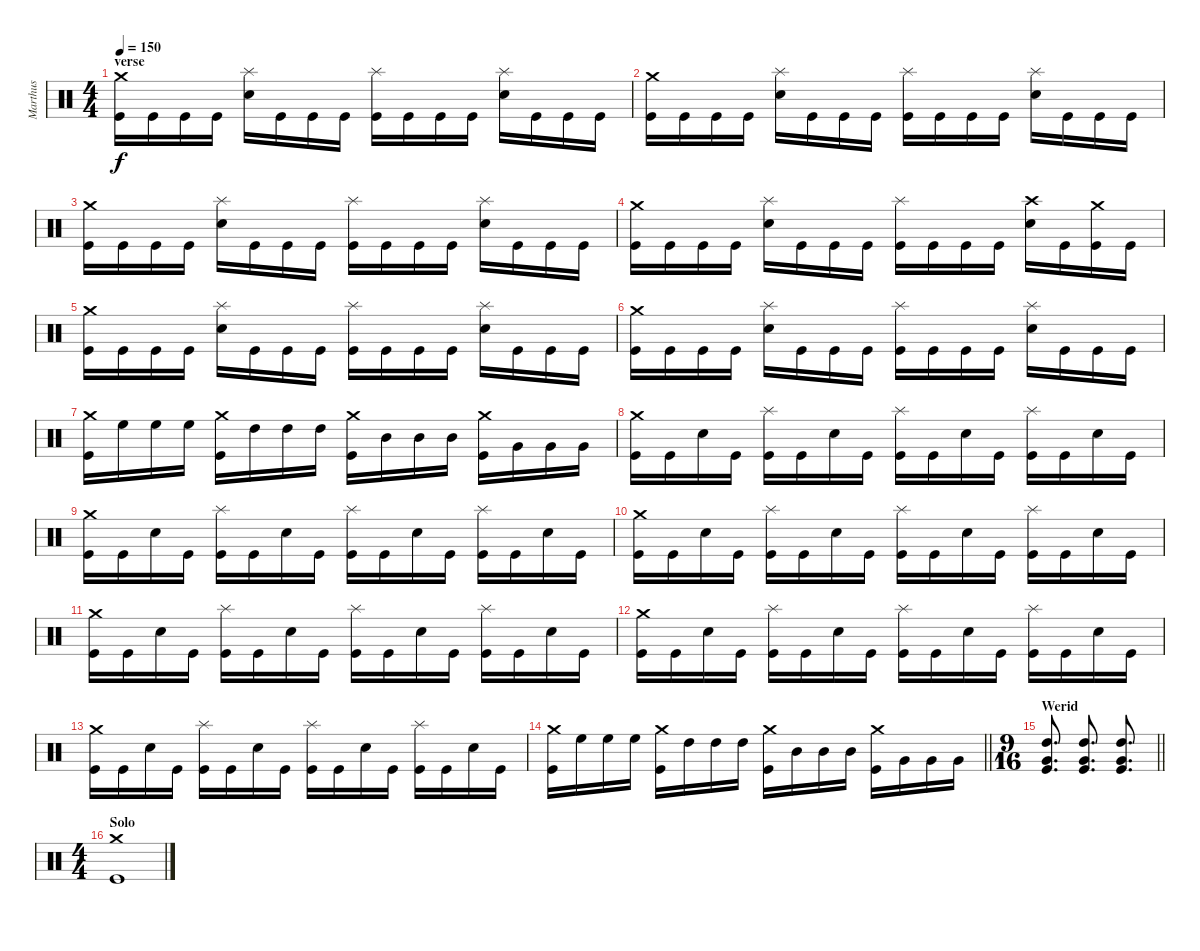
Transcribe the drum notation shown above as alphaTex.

\track ("Marthus" "Marthus") {instrument percussion}
\staff {score}
\articulation defaults
\ts (4 4)
\section ("" "verse")
\tempo 150
\clef neutral
\ks c
("Crash medium (hit)" "Kick (hit)").16{dy f} "Kick (hit)".16 "Kick (hit)".16 "Kick (hit)".16 ("Splash (hit)" "Snare (hit) 2").16 "Kick (hit)".16 "Kick (hit)".16 "Kick (hit)".16 ("Splash (hit)" "Kick (hit)").16 "Kick (hit)".16 "Kick (hit)".16 "Kick (hit)".16 ("Splash (hit)" "Snare (hit) 2").16 "Kick (hit)".16 "Kick (hit)".16 "Kick (hit)".16 |
("Crash medium (hit)" "Kick (hit)").16 "Kick (hit)".16 "Kick (hit)".16 "Kick (hit)".16 ("Splash (hit)" "Snare (hit) 2").16 "Kick (hit)".16 "Kick (hit)".16 "Kick (hit)".16 ("Splash (hit)" "Kick (hit)").16 "Kick (hit)".16 "Kick (hit)".16 "Kick (hit)".16 ("Splash (hit)" "Snare (hit) 2").16 "Kick (hit)".16 "Kick (hit)".16 "Kick (hit)".16 |
("Crash medium (hit)" "Kick (hit)").16 "Kick (hit)".16 "Kick (hit)".16 "Kick (hit)".16 ("Splash (hit)" "Snare (hit) 2").16 "Kick (hit)".16 "Kick (hit)".16 "Kick (hit)".16 ("Splash (hit)" "Kick (hit)").16 "Kick (hit)".16 "Kick (hit)".16 "Kick (hit)".16 ("Splash (hit)" "Snare (hit) 2").16 "Kick (hit)".16 "Kick (hit)".16 "Kick (hit)".16 |
("Crash medium (hit)" "Kick (hit)").16 "Kick (hit)".16 "Kick (hit)".16 "Kick (hit)".16 ("Splash (hit)" "Snare (hit) 2").16 "Kick (hit)".16 "Kick (hit)".16 "Kick (hit)".16 ("Splash (hit)" "Kick (hit)").16 "Kick (hit)".16 "Kick (hit)".16 "Kick (hit)".16 ("Crash high (hit)" "Snare (hit) 2").16 "Kick (hit)".16 ("Crash medium (hit)" "Kick (hit)").16 "Kick (hit)".16 |
("Crash medium (hit)" "Kick (hit)").16 "Kick (hit)".16 "Kick (hit)".16 "Kick (hit)".16 ("Splash (hit)" "Snare (hit) 2").16 "Kick (hit)".16 "Kick (hit)".16 "Kick (hit)".16 ("Splash (hit)" "Kick (hit)").16 "Kick (hit)".16 "Kick (hit)".16 "Kick (hit)".16 ("Splash (hit)" "Snare (hit) 2").16 "Kick (hit)".16 "Kick (hit)".16 "Kick (hit)".16 |
("Crash medium (hit)" "Kick (hit)").16 "Kick (hit)".16 "Kick (hit)".16 "Kick (hit)".16 ("Splash (hit)" "Snare (hit) 2").16 "Kick (hit)".16 "Kick (hit)".16 "Kick (hit)".16 ("Splash (hit)" "Kick (hit)").16 "Kick (hit)".16 "Kick (hit)".16 "Kick (hit)".16 ("Splash (hit)" "Snare (hit) 2").16 "Kick (hit)".16 "Kick (hit)".16 "Kick (hit)".16 |
("Crash medium (hit)" "Kick (hit)").16 "High Floor Tom (hit)".16 "High Floor Tom (hit)".16 "High Floor Tom (hit)".16 ("Crash medium (hit)" "Kick (hit)").16 "High Tom (hit)".16 "High Tom (hit)".16 "High Tom (hit)".16 ("Crash medium (hit)" "Kick (hit)").16 "Mid Tom (hit)".16 "Mid Tom (hit)".16 "Mid Tom (hit)".16 ("Crash medium (hit)" "Kick (hit)").16 "Very Low Tom (hit)".16 "Very Low Tom (hit)".16 "Very Low Tom (hit)".16 |
("Crash medium (hit)" "Kick (hit)").16 "Kick (hit)".16 "Snare (hit) 2".16 "Kick (hit)".16 ("Splash (hit)" "Kick (hit)").16 "Kick (hit)".16 "Snare (hit) 2".16 "Kick (hit)".16 ("Splash (hit)" "Kick (hit)").16 "Kick (hit)".16 "Snare (hit) 2".16 "Kick (hit)".16 ("Splash (hit)" "Kick (hit)").16 "Kick (hit)".16 "Snare (hit) 2".16 "Kick (hit)".16 |
("Crash medium (hit)" "Kick (hit)").16 "Kick (hit)".16 "Snare (hit) 2".16 "Kick (hit)".16 ("Splash (hit)" "Kick (hit)").16 "Kick (hit)".16 "Snare (hit) 2".16 "Kick (hit)".16 ("Splash (hit)" "Kick (hit)").16 "Kick (hit)".16 "Snare (hit) 2".16 "Kick (hit)".16 ("Splash (hit)" "Kick (hit)").16 "Kick (hit)".16 "Snare (hit) 2".16 "Kick (hit)".16 |
("Crash medium (hit)" "Kick (hit)").16 "Kick (hit)".16 "Snare (hit) 2".16 "Kick (hit)".16 ("Splash (hit)" "Kick (hit)").16 "Kick (hit)".16 "Snare (hit) 2".16 "Kick (hit)".16 ("Splash (hit)" "Kick (hit)").16 "Kick (hit)".16 "Snare (hit) 2".16 "Kick (hit)".16 ("Splash (hit)" "Kick (hit)").16 "Kick (hit)".16 "Snare (hit) 2".16 "Kick (hit)".16 |
("Crash medium (hit)" "Kick (hit)").16 "Kick (hit)".16 "Snare (hit) 2".16 "Kick (hit)".16 ("Splash (hit)" "Kick (hit)").16 "Kick (hit)".16 "Snare (hit) 2".16 "Kick (hit)".16 ("Splash (hit)" "Kick (hit)").16 "Kick (hit)".16 "Snare (hit) 2".16 "Kick (hit)".16 ("Splash (hit)" "Kick (hit)").16 "Kick (hit)".16 "Snare (hit) 2".16 "Kick (hit)".16 |
("Crash medium (hit)" "Kick (hit)").16 "Kick (hit)".16 "Snare (hit) 2".16 "Kick (hit)".16 ("Splash (hit)" "Kick (hit)").16 "Kick (hit)".16 "Snare (hit) 2".16 "Kick (hit)".16 ("Splash (hit)" "Kick (hit)").16 "Kick (hit)".16 "Snare (hit) 2".16 "Kick (hit)".16 ("Splash (hit)" "Kick (hit)").16 "Kick (hit)".16 "Snare (hit) 2".16 "Kick (hit)".16 |
("Crash medium (hit)" "Kick (hit)").16 "Kick (hit)".16 "Snare (hit) 2".16 "Kick (hit)".16 ("Splash (hit)" "Kick (hit)").16 "Kick (hit)".16 "Snare (hit) 2".16 "Kick (hit)".16 ("Splash (hit)" "Kick (hit)").16 "Kick (hit)".16 "Snare (hit) 2".16 "Kick (hit)".16 ("Splash (hit)" "Kick (hit)").16 "Kick (hit)".16 "Snare (hit) 2".16 "Kick (hit)".16 |
\barLineRight lightlight
("Crash medium (hit)" "Kick (hit)").16 "High Floor Tom (hit)".16 "High Floor Tom (hit)".16 "High Floor Tom (hit)".16 ("Crash medium (hit)" "Kick (hit)").16 "High Tom (hit)".16 "High Tom (hit)".16 "High Tom (hit)".16 ("Crash medium (hit)" "Kick (hit)").16 "Mid Tom (hit)".16 "Mid Tom (hit)".16 "Mid Tom (hit)".16 ("Crash medium (hit)" "Kick (hit)").16 "Very Low Tom (hit)".16 "Very Low Tom (hit)".16 "Very Low Tom (hit)".16 |
\ts (9 16)
\section ("" "Werid")
\barLineRight lightlight
("High Tom (hit)" "Very Low Tom (hit)" "Kick (hit)").8{d} ("High Tom (hit)" "Very Low Tom (hit)" "Kick (hit)").8{d} ("High Tom (hit)" "Very Low Tom (hit)" "Kick (hit)").8{d} |
\ts (4 4)
\section ("" "Solo ")
("Crash medium (hit)" "Kick (hit)").1
